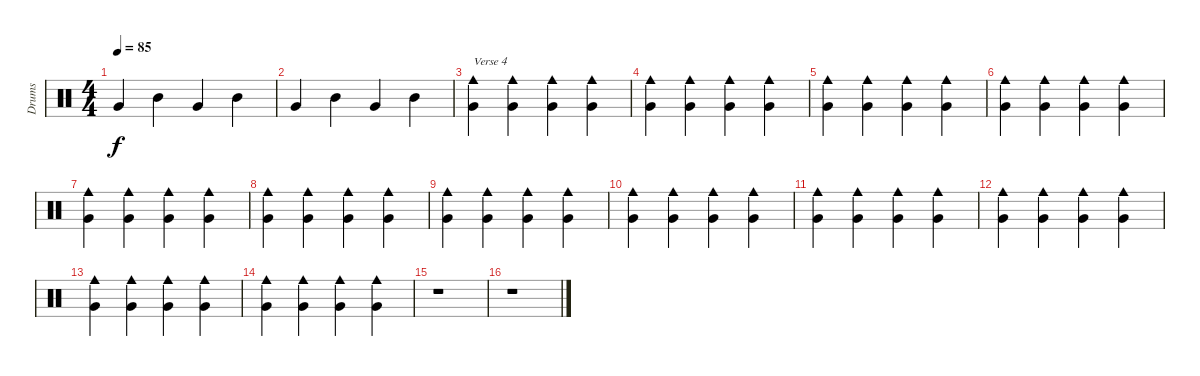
\track ("Drums" "Drums") {instrument percussion}
\staff {score}
\articulation defaults
\ts (4 4)
\tempo 85
\clef neutral
\ks c "Very Low Tom (hit)".4{dy f} "Mid Tom (hit)".4 "Very Low Tom (hit)".4 "Mid Tom (hit)".4
|
"Very Low Tom (hit)".4 "Mid Tom (hit)".4 "Very Low Tom (hit)".4 "Mid Tom (hit)".4 |
("Very Low Tom (hit)" "Cowbell medium (hit)").4{txt "Verse 4"} ("Very Low Tom (hit)" "Cowbell medium (hit)").4 ("Very Low Tom (hit)" "Cowbell medium (hit)").4 ("Very Low Tom (hit)" "Cowbell medium (hit)").4 |
("Very Low Tom (hit)" "Cowbell medium (hit)").4 ("Very Low Tom (hit)" "Cowbell medium (hit)").4 ("Very Low Tom (hit)" "Cowbell medium (hit)").4 ("Very Low Tom (hit)" "Cowbell medium (hit)").4 |
("Very Low Tom (hit)" "Cowbell medium (hit)").4 ("Very Low Tom (hit)" "Cowbell medium (hit)").4 ("Very Low Tom (hit)" "Cowbell medium (hit)").4 ("Very Low Tom (hit)" "Cowbell medium (hit)").4 |
("Very Low Tom (hit)" "Cowbell medium (hit)").4 ("Very Low Tom (hit)" "Cowbell medium (hit)").4 ("Very Low Tom (hit)" "Cowbell medium (hit)").4 ("Very Low Tom (hit)" "Cowbell medium (hit)").4 |
("Very Low Tom (hit)" "Cowbell medium (hit)").4 ("Very Low Tom (hit)" "Cowbell medium (hit)").4 ("Very Low Tom (hit)" "Cowbell medium (hit)").4 ("Very Low Tom (hit)" "Cowbell medium (hit)").4 |
("Very Low Tom (hit)" "Cowbell medium (hit)").4 ("Very Low Tom (hit)" "Cowbell medium (hit)").4 ("Very Low Tom (hit)" "Cowbell medium (hit)").4 ("Very Low Tom (hit)" "Cowbell medium (hit)").4 |
("Very Low Tom (hit)" "Cowbell medium (hit)").4 ("Very Low Tom (hit)" "Cowbell medium (hit)").4 ("Very Low Tom (hit)" "Cowbell medium (hit)").4 ("Very Low Tom (hit)" "Cowbell medium (hit)").4 |
("Very Low Tom (hit)" "Cowbell medium (hit)").4 ("Very Low Tom (hit)" "Cowbell medium (hit)").4 ("Very Low Tom (hit)" "Cowbell medium (hit)").4 ("Very Low Tom (hit)" "Cowbell medium (hit)").4 |
("Very Low Tom (hit)" "Cowbell medium (hit)").4 ("Very Low Tom (hit)" "Cowbell medium (hit)").4 ("Very Low Tom (hit)" "Cowbell medium (hit)").4 ("Very Low Tom (hit)" "Cowbell medium (hit)").4 |
("Very Low Tom (hit)" "Cowbell medium (hit)").4 ("Very Low Tom (hit)" "Cowbell medium (hit)").4 ("Very Low Tom (hit)" "Cowbell medium (hit)").4 ("Very Low Tom (hit)" "Cowbell medium (hit)").4 |
("Very Low Tom (hit)" "Cowbell medium (hit)").4 ("Very Low Tom (hit)" "Cowbell medium (hit)").4 ("Very Low Tom (hit)" "Cowbell medium (hit)").4 ("Very Low Tom (hit)" "Cowbell medium (hit)").4 |
("Very Low Tom (hit)" "Cowbell medium (hit)").4 ("Very Low Tom (hit)" "Cowbell medium (hit)").4 ("Very Low Tom (hit)" "Cowbell medium (hit)").4 ("Very Low Tom (hit)" "Cowbell medium (hit)").4 |
r.1 |
r.1
